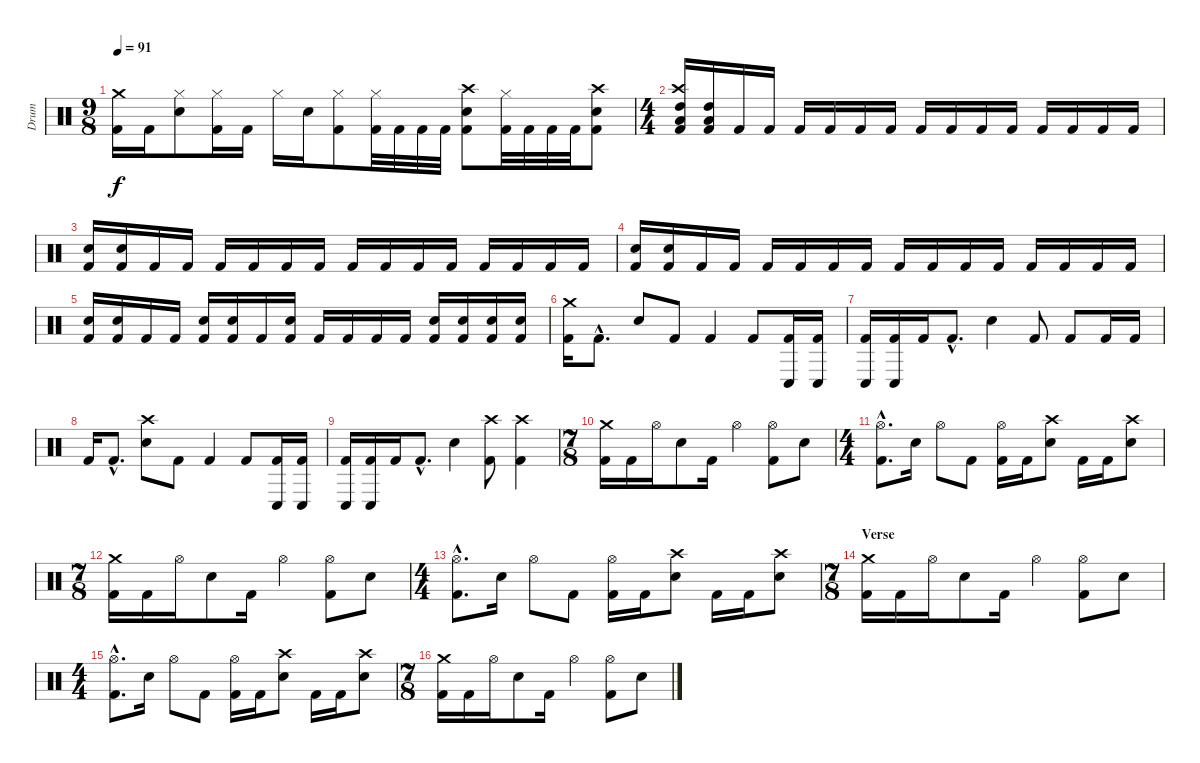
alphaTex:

\track ("Drum" "Drum") {instrument percussion}
\staff {score}
\articulation defaults
\ts (9 8)
\tempo 91
\clef neutral
\ks c
("Crash medium (hit)" "Kick (hit) 2").16{dy f} "Kick (hit) 2".16 ("Hi-Hat (closed)" "Snare (hit) 2").8 ("Hi-Hat (closed)" "Kick (hit) 2").16 "Kick (hit) 2".16 "Hi-Hat (closed)".16 "Snare (hit) 2".16 ("Hi-Hat (closed)" "Kick (hit) 2").8 ("Hi-Hat (closed)" "Kick (hit) 2").32 "Kick (hit) 2".32 "Kick (hit) 2".32 "Kick (hit) 2".32 ("Crash high (hit)" "Snare (hit) 2" "Kick (hit) 2").8 ("Hi-Hat (closed)" "Kick (hit) 2").32 "Kick (hit) 2".32 "Kick (hit) 2".32 "Kick (hit) 2".32 ("Crash high (hit)" "Snare (hit) 2" "Kick (hit) 2").8 |
\ts (4 4)
("Crash high (hit)" "High Tom (hit)" "Low Tom (hit)" "Kick (hit) 2").16 ("High Tom (hit)" "Low Tom (hit)" "Kick (hit) 2").16 "Kick (hit) 2".16 "Kick (hit) 2".16 "Kick (hit) 2".16 "Kick (hit) 2".16 "Kick (hit) 2".16 "Kick (hit) 2".16 "Kick (hit) 2".16 "Kick (hit) 2".16 "Kick (hit) 2".16 "Kick (hit) 2".16 "Kick (hit) 2".16 "Kick (hit) 2".16 "Kick (hit) 2".16 "Kick (hit) 2".16 |
("Snare (hit) 2" "Kick (hit) 2").16 ("Snare (hit) 2" "Kick (hit) 2").16 "Kick (hit) 2".16 "Kick (hit) 2".16 "Kick (hit) 2".16 "Kick (hit) 2".16 "Kick (hit) 2".16 "Kick (hit) 2".16 "Kick (hit) 2".16 "Kick (hit) 2".16 "Kick (hit) 2".16 "Kick (hit) 2".16 "Kick (hit) 2".16 "Kick (hit) 2".16 "Kick (hit) 2".16 "Kick (hit) 2".16 |
("Snare (hit) 2" "Kick (hit) 2").16 ("Snare (hit) 2" "Kick (hit) 2").16 "Kick (hit) 2".16 "Kick (hit) 2".16 "Kick (hit) 2".16 "Kick (hit) 2".16 "Kick (hit) 2".16 "Kick (hit) 2".16 "Kick (hit) 2".16 "Kick (hit) 2".16 "Kick (hit) 2".16 "Kick (hit) 2".16 "Kick (hit) 2".16 "Kick (hit) 2".16 "Kick (hit) 2".16 "Kick (hit) 2".16 |
("Snare (hit) 2" "Kick (hit) 2").16 ("Snare (hit) 2" "Kick (hit) 2").16 "Kick (hit) 2".16 "Kick (hit) 2".16 ("Snare (hit) 2" "Kick (hit) 2").16 ("Snare (hit) 2" "Kick (hit) 2").16 "Kick (hit) 2".16 ("Snare (hit) 2" "Kick (hit) 2").16 "Kick (hit) 2".16 "Kick (hit) 2".16 "Kick (hit) 2".16 "Kick (hit) 2".16 ("Snare (hit) 2" "Kick (hit) 2").16 ("Snare (hit) 2" "Kick (hit) 2").16 ("Snare (hit) 2" "Kick (hit) 2").16 ("Snare (hit) 2" "Kick (hit) 2").16 |
("Crash medium (hit)" "Kick (hit) 2").16 "Kick (hit) 2"{hac}.8{d} "Snare (hit) 2".8 "Kick (hit) 2".8 "Kick (hit) 2".4 "Kick (hit) 2".8 ("Conga low (hit)" "Kick (hit) 2").16 ("Conga low (hit)" "Kick (hit) 2").16 |
("Conga low (hit)" "Kick (hit) 2").16 ("Conga low (hit)" "Kick (hit) 2").16 "Kick (hit) 2".16 "Kick (hit) 2"{hac}.8{d} "Snare (hit) 2".4 "Kick (hit) 2".8 "Kick (hit) 2".8 "Kick (hit) 2".16 "Kick (hit) 2".16 |
"Kick (hit) 2".16 "Kick (hit) 2"{hac}.8{d} ("Crash high (hit)" "Snare (hit) 2").8 "Kick (hit) 2".8 "Kick (hit) 2".4 "Kick (hit) 2".8 ("Conga low (hit)" "Kick (hit) 2").16 ("Conga low (hit)" "Kick (hit) 2").16 |
("Conga low (hit)" "Kick (hit) 2").16 ("Conga low (hit)" "Kick (hit) 2").16 "Kick (hit) 2".16 "Kick (hit) 2"{hac}.8{d} "Snare (hit) 2".4 ("Crash high (hit)" "Kick (hit) 2").8 ("Crash high (hit)" "Kick (hit) 2").4 |
\ts (7 8)
("Crash medium (hit)" "Kick (hit) 2").16 "Kick (hit) 2".16 "Hi-Hat (open)".16 "Snare (hit) 2".8 "Kick (hit) 2".16 "Hi-Hat (open)".4 ("Hi-Hat (open)" "Kick (hit) 2").8 "Snare (hit) 2".8 |
\ts (4 4)
("Hi-Hat (open)"{hac} "Kick (hit) 2"{hac}).8{d} "Snare (hit) 2".16 "Hi-Hat (open)".8 "Kick (hit) 2".8 ("Hi-Hat (open)" "Kick (hit) 2").16 "Kick (hit) 2".16 ("Crash high (hit)" "Snare (hit) 2").8 "Kick (hit) 2".16 "Kick (hit) 2".16 ("Crash high (hit)" "Snare (hit) 2").8 |
\ts (7 8)
("Crash medium (hit)" "Kick (hit) 2").16 "Kick (hit) 2".16 "Hi-Hat (open)".16 "Snare (hit) 2".8 "Kick (hit) 2".16 "Hi-Hat (open)".4 ("Hi-Hat (open)" "Kick (hit) 2").8 "Snare (hit) 2".8 |
\ts (4 4)
("Hi-Hat (open)"{hac} "Kick (hit) 2"{hac}).8{d} "Snare (hit) 2".16 "Hi-Hat (open)".8 "Kick (hit) 2".8 ("Hi-Hat (open)" "Kick (hit) 2").16 "Kick (hit) 2".16 ("Crash high (hit)" "Snare (hit) 2").8 "Kick (hit) 2".16 "Kick (hit) 2".16 ("Crash high (hit)" "Snare (hit) 2").8 |
\ts (7 8)
\section ("" "Verse")
("Crash medium (hit)" "Kick (hit) 2").16 "Kick (hit) 2".16 "Hi-Hat (open)".16 "Snare (hit) 2".8 "Kick (hit) 2".16 "Hi-Hat (open)".4 ("Hi-Hat (open)" "Kick (hit) 2").8 "Snare (hit) 2".8 |
\ts (4 4)
("Hi-Hat (open)"{hac} "Kick (hit) 2"{hac}).8{d} "Snare (hit) 2".16 "Hi-Hat (open)".8 "Kick (hit) 2".8 ("Hi-Hat (open)" "Kick (hit) 2").16 "Kick (hit) 2".16 ("Crash high (hit)" "Snare (hit) 2").8 "Kick (hit) 2".16 "Kick (hit) 2".16 ("Crash high (hit)" "Snare (hit) 2").8 |
\ts (7 8)
("Crash medium (hit)" "Kick (hit) 2").16 "Kick (hit) 2".16 "Hi-Hat (open)".16 "Snare (hit) 2".8 "Kick (hit) 2".16 "Hi-Hat (open)".4 ("Hi-Hat (open)" "Kick (hit) 2").8 "Snare (hit) 2".8
